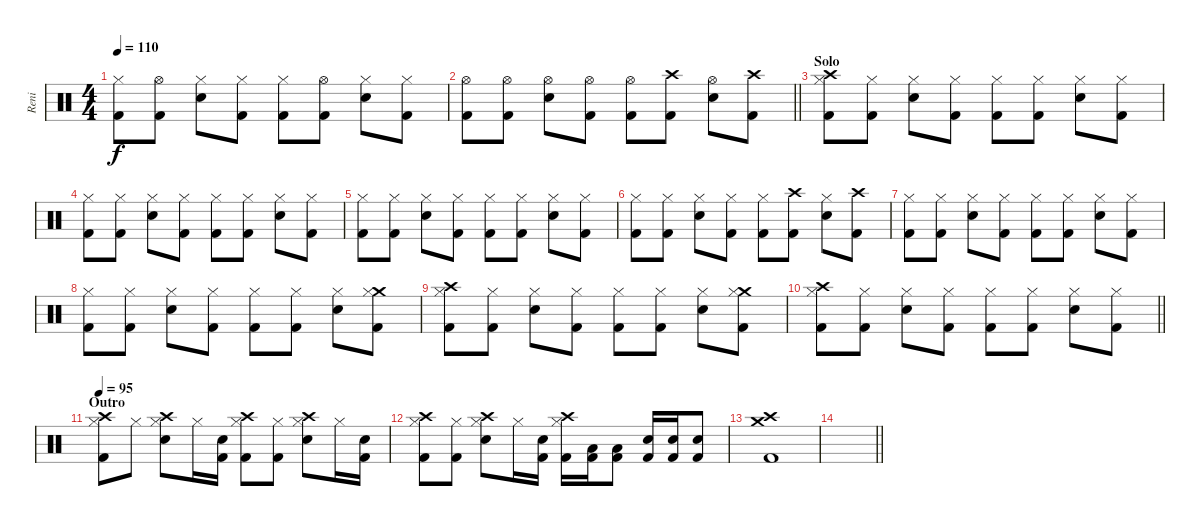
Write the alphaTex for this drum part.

\track ("Reni" "Reni") {instrument percussion}
\staff {score}
\articulation defaults
\ts (4 4)
\tempo 110
\clef neutral
\ks c
("Hi-Hat (closed)" "Kick (hit) 2").8{dy f} ("Hi-Hat (open)" "Kick (hit) 2").8 ("Hi-Hat (closed)" "Electric Snare (hit)").8 ("Hi-Hat (closed)" "Kick (hit) 2").8 ("Hi-Hat (closed)" "Kick (hit) 2").8 ("Hi-Hat (open)" "Kick (hit) 2").8 ("Hi-Hat (closed)" "Electric Snare (hit)").8 ("Hi-Hat (closed)" "Kick (hit) 2").8 |
\barLineRight lightlight
("Hi-Hat (open)" "Kick (hit) 2").8 ("Hi-Hat (open)" "Kick (hit) 2").8 ("Hi-Hat (open)" "Electric Snare (hit)").8 ("Hi-Hat (open)" "Kick (hit) 2").8 ("Hi-Hat (open)" "Kick (hit) 2").8 ("Crash high (hit)" "Kick (hit) 2").8 ("Hi-Hat (open)" "Electric Snare (hit)").8 ("Crash high (hit)" "Kick (hit) 2").8 |
\section ("" "Solo")
("Crash high (hit)" "Hi-Hat (closed)" "Kick (hit) 2").8 ("Hi-Hat (closed)" "Kick (hit) 2").8 ("Hi-Hat (closed)" "Electric Snare (hit)").8 ("Hi-Hat (closed)" "Kick (hit) 2").8 ("Hi-Hat (closed)" "Kick (hit) 2").8 ("Hi-Hat (closed)" "Kick (hit) 2").8 ("Hi-Hat (closed)" "Electric Snare (hit)").8 ("Hi-Hat (closed)" "Kick (hit) 2").8 |
("Hi-Hat (closed)" "Kick (hit) 2").8 ("Hi-Hat (closed)" "Kick (hit) 2").8 ("Hi-Hat (closed)" "Electric Snare (hit)").8 ("Hi-Hat (closed)" "Kick (hit) 2").8 ("Hi-Hat (closed)" "Kick (hit) 2").8 ("Hi-Hat (closed)" "Kick (hit) 2").8 ("Hi-Hat (closed)" "Electric Snare (hit)").8 ("Hi-Hat (closed)" "Kick (hit) 2").8 |
("Hi-Hat (closed)" "Kick (hit) 2").8 ("Hi-Hat (closed)" "Kick (hit) 2").8 ("Hi-Hat (closed)" "Electric Snare (hit)").8 ("Hi-Hat (closed)" "Kick (hit) 2").8 ("Hi-Hat (closed)" "Kick (hit) 2").8 ("Hi-Hat (closed)" "Kick (hit) 2").8 ("Hi-Hat (closed)" "Electric Snare (hit)").8 ("Hi-Hat (closed)" "Kick (hit) 2").8 |
("Hi-Hat (closed)" "Kick (hit) 2").8 ("Hi-Hat (closed)" "Kick (hit) 2").8 ("Hi-Hat (closed)" "Electric Snare (hit)").8 ("Hi-Hat (closed)" "Kick (hit) 2").8 ("Hi-Hat (closed)" "Kick (hit) 2").8 ("Crash high (hit)" "Kick (hit) 2").8 ("Hi-Hat (closed)" "Electric Snare (hit)").8 ("Crash high (hit)" "Kick (hit) 2").8 |
("Hi-Hat (closed)" "Kick (hit) 2").8 ("Hi-Hat (closed)" "Kick (hit) 2").8 ("Hi-Hat (closed)" "Electric Snare (hit)").8 ("Hi-Hat (closed)" "Kick (hit) 2").8 ("Hi-Hat (closed)" "Kick (hit) 2").8 ("Hi-Hat (closed)" "Kick (hit) 2").8 ("Hi-Hat (closed)" "Electric Snare (hit)").8 ("Hi-Hat (closed)" "Kick (hit) 2").8 |
("Hi-Hat (closed)" "Kick (hit) 2").8 ("Hi-Hat (closed)" "Kick (hit) 2").8 ("Hi-Hat (closed)" "Electric Snare (hit)").8 ("Hi-Hat (closed)" "Kick (hit) 2").8 ("Hi-Hat (closed)" "Kick (hit) 2").8 ("Hi-Hat (closed)" "Kick (hit) 2").8 ("Hi-Hat (closed)" "Electric Snare (hit)").8 ("Crash medium (hit)" "Hi-Hat (closed)" "Kick (hit) 2").8 |
("Crash high (hit)" "Hi-Hat (closed)" "Kick (hit) 2").8 ("Hi-Hat (closed)" "Kick (hit) 2").8 ("Hi-Hat (closed)" "Electric Snare (hit)").8 ("Hi-Hat (closed)" "Kick (hit) 2").8 ("Hi-Hat (closed)" "Kick (hit) 2").8 ("Hi-Hat (closed)" "Kick (hit) 2").8 ("Hi-Hat (closed)" "Electric Snare (hit)").8 ("Crash medium (hit)" "Hi-Hat (closed)" "Kick (hit) 2").8 |
\barLineRight lightlight
("Crash high (hit)" "Hi-Hat (closed)" "Kick (hit) 2").8 ("Hi-Hat (closed)" "Kick (hit) 2").8 ("Hi-Hat (closed)" "Electric Snare (hit)").8 ("Hi-Hat (closed)" "Kick (hit) 2").8 ("Hi-Hat (closed)" "Kick (hit) 2").8 ("Hi-Hat (closed)" "Kick (hit) 2").8 ("Hi-Hat (closed)" "Electric Snare (hit)").8 ("Hi-Hat (closed)" "Kick (hit) 2").8 |
\section ("" "Outro")
\tempo 95
("Crash high (hit)" "Hi-Hat (closed)" "Kick (hit) 2").8 "Hi-Hat (closed)".8 ("Crash high (hit)" "Hi-Hat (closed)" "Electric Snare (hit)").8 "Hi-Hat (closed)".16 ("Electric Snare (hit)" "Kick (hit) 2").16 ("Crash high (hit)" "Hi-Hat (closed)" "Kick (hit) 2").8 ("Hi-Hat (closed)" "Kick (hit) 2").8 ("Crash high (hit)" "Hi-Hat (closed)" "Electric Snare (hit)").8 "Hi-Hat (closed)".16 ("Electric Snare (hit)" "Kick (hit) 2").16 |
("Crash high (hit)" "Hi-Hat (closed)" "Kick (hit) 2").8 ("Hi-Hat (closed)" "Kick (hit) 2").8 ("Crash high (hit)" "Hi-Hat (closed)" "Electric Snare (hit)").8 "Hi-Hat (closed)".16 ("Electric Snare (hit)" "Kick (hit) 2").16 ("Crash high (hit)" "Hi-Hat (closed)" "Kick (hit) 2").16 ("Low Tom (hit)" "Kick (hit) 2").16 ("Low Tom (hit)" "Kick (hit) 2").8 ("Electric Snare (hit)" "Kick (hit) 2").16 ("Electric Snare (hit)" "Kick (hit) 2").16 ("Electric Snare (hit)" "Kick (hit) 2").8 |
("Crash medium (hit)" "Crash high (hit)" "Kick (hit) 2").1 |
\barLineRight lightlight
